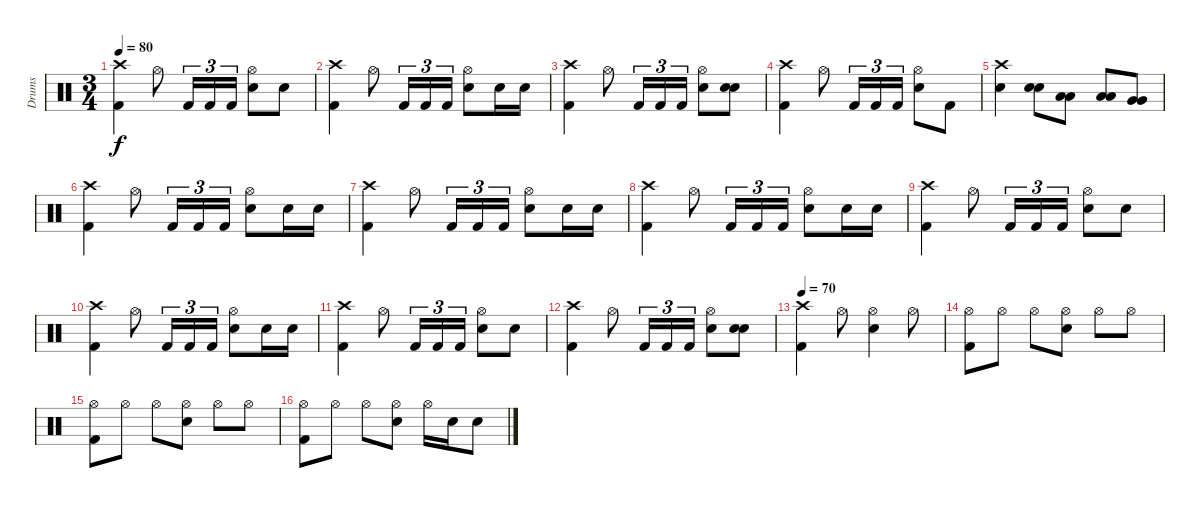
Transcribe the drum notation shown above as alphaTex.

\track ("Drums" "Drums") {instrument percussion}
\staff {score}
\articulation defaults
\ts (3 4)
\tempo 80
\clef neutral
\ks c
("Crash high (hit)" "Kick (hit) 2").4{dy f} "Hi-Hat (open)".8 "Kick (hit) 2".16{tu (3 2)} "Kick (hit) 2".16{tu (3 2)} "Kick (hit) 2".16{tu (3 2)} ("Hi-Hat (open)" "Electric Snare (hit)").8 "Electric Snare (hit)".8 |
("Crash high (hit)" "Kick (hit) 2").4 "Hi-Hat (open)".8 "Kick (hit) 2".16{tu (3 2)} "Kick (hit) 2".16{tu (3 2)} "Kick (hit) 2".16{tu (3 2)} ("Hi-Hat (open)" "Electric Snare (hit)").8 "Electric Snare (hit)".16 "Electric Snare (hit)".16 |
("Crash high (hit)" "Kick (hit) 2").4 "Hi-Hat (open)".8 "Kick (hit) 2".16{tu (3 2)} "Kick (hit) 2".16{tu (3 2)} "Kick (hit) 2".16{tu (3 2)} ("Hi-Hat (open)" "Electric Snare (hit)").8 ("Electric Snare (hit)" "Electric Snare (hit)").8{bu 60} |
("Crash high (hit)" "Kick (hit) 2").4 "Hi-Hat (open)".8 "Kick (hit) 2".16{tu (3 2)} "Kick (hit) 2".16{tu (3 2)} "Kick (hit) 2".16{tu (3 2)} ("Hi-Hat (open)" "Electric Snare (hit)").8 "Kick (hit) 2".8 |
("Crash high (hit)" "Electric Snare (hit)").4 ("Electric Snare (hit)" "Electric Snare (hit)").8{bu 60} ("Low Tom (hit)" "Low Tom (hit)").8{bu 60} ("Low Tom (hit)" "Low Tom (hit)").8{bu 60} ("Very Low Tom (hit)" "Very Low Tom (hit)").8{bu 60} |
("Crash high (hit)" "Kick (hit) 2").4 "Hi-Hat (open)".8 "Kick (hit) 2".16{tu (3 2)} "Kick (hit) 2".16{tu (3 2)} "Kick (hit) 2".16{tu (3 2)} ("Hi-Hat (open)" "Electric Snare (hit)").8 "Electric Snare (hit)".16 "Electric Snare (hit)".16 |
("Crash high (hit)" "Kick (hit) 2").4 "Hi-Hat (open)".8 "Kick (hit) 2".16{tu (3 2)} "Kick (hit) 2".16{tu (3 2)} "Kick (hit) 2".16{tu (3 2)} ("Hi-Hat (open)" "Electric Snare (hit)").8 "Electric Snare (hit)".16 "Electric Snare (hit)".16 |
("Crash high (hit)" "Kick (hit) 2").4 "Hi-Hat (open)".8 "Kick (hit) 2".16{tu (3 2)} "Kick (hit) 2".16{tu (3 2)} "Kick (hit) 2".16{tu (3 2)} ("Hi-Hat (open)" "Electric Snare (hit)").8 "Electric Snare (hit)".16 "Electric Snare (hit)".16 |
("Crash high (hit)" "Kick (hit) 2").4 "Hi-Hat (open)".8 "Kick (hit) 2".16{tu (3 2)} "Kick (hit) 2".16{tu (3 2)} "Kick (hit) 2".16{tu (3 2)} ("Hi-Hat (open)" "Electric Snare (hit)").8 "Electric Snare (hit)".8 |
("Crash high (hit)" "Kick (hit) 2").4 "Hi-Hat (open)".8 "Kick (hit) 2".16{tu (3 2)} "Kick (hit) 2".16{tu (3 2)} "Kick (hit) 2".16{tu (3 2)} ("Hi-Hat (open)" "Electric Snare (hit)").8 "Electric Snare (hit)".16 "Electric Snare (hit)".16 |
("Crash high (hit)" "Kick (hit) 2").4 "Hi-Hat (open)".8 "Kick (hit) 2".16{tu (3 2)} "Kick (hit) 2".16{tu (3 2)} "Kick (hit) 2".16{tu (3 2)} ("Hi-Hat (open)" "Electric Snare (hit)").8 "Electric Snare (hit)".8 |
("Crash high (hit)" "Kick (hit) 2").4 "Hi-Hat (open)".8 "Kick (hit) 2".16{tu (3 2)} "Kick (hit) 2".16{tu (3 2)} "Kick (hit) 2".16{tu (3 2)} ("Hi-Hat (open)" "Electric Snare (hit)").8 ("Electric Snare (hit)" "Electric Snare (hit)").8{bu 60} |
\tempo 70
("Crash high (hit)" "Kick (hit) 2").4 "Hi-Hat (open)".8 ("Hi-Hat (open)" "Electric Snare (hit)").4 "Hi-Hat (open)".8 |
("Hi-Hat (open)" "Kick (hit) 2").8 "Hi-Hat (open)".8 "Hi-Hat (open)".8 ("Hi-Hat (open)" "Electric Snare (hit)").8 "Hi-Hat (open)".8 "Hi-Hat (open)".8 |
("Hi-Hat (open)" "Kick (hit) 2").8 "Hi-Hat (open)".8 "Hi-Hat (open)".8 ("Hi-Hat (open)" "Electric Snare (hit)").8 "Hi-Hat (open)".8 "Hi-Hat (open)".8 |
("Hi-Hat (open)" "Kick (hit) 2").8 "Hi-Hat (open)".8 "Hi-Hat (open)".8 ("Hi-Hat (open)" "Electric Snare (hit)").8 "Hi-Hat (open)".16 "Electric Snare (hit)".16 "Electric Snare (hit)".8
